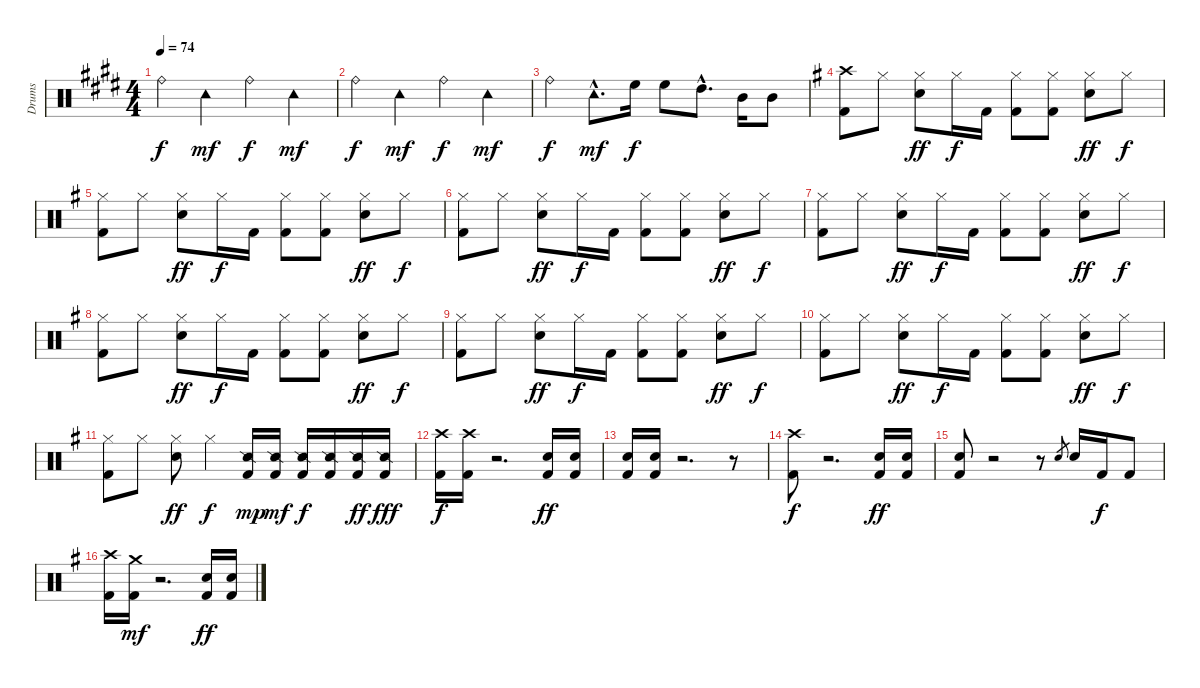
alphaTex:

\track ("Drums" "Drums") {instrument percussion}
\staff {score}
\articulation defaults
\ts (4 4)
\tempo 74
\clef neutral
\ks e "Ride (bell)".4{dy f} "Tambourine (hit)".4{dy mf} "Ride (bell)".4{dy f} "Tambourine (hit)".4{dy mf}
|
"Ride (bell)".4{dy f} "Tambourine (hit)".4{dy mf} "Ride (bell)".4{dy f} "Tambourine (hit)".4{dy mf} |
"Ride (bell)".4{dy f} "Tambourine (hit)"{hac}.8{d dy mf} "High Floor Tom (hit)".16{dy f} "High Floor Tom (hit)".8 "High Tom (hit)"{hac}.8{d} "Mid Tom (hit)".16 "Mid Tom (hit)".8 |
\ks g
("Kick (hit) 2" "Crash high (hit)").8 "Hi-Hat (closed)".8 ("Electric Snare (hit)" "Hi-Hat (closed)").8{dy ff} "Hi-Hat (closed)".16{dy f} "Kick (hit) 2".16 ("Kick (hit) 2" "Hi-Hat (closed)").8 ("Kick (hit) 2" "Hi-Hat (closed)").8 ("Electric Snare (hit)" "Hi-Hat (closed)").8{dy ff} "Hi-Hat (closed)".8{dy f} |
("Kick (hit) 2" "Hi-Hat (closed)").8 "Hi-Hat (closed)".8 ("Electric Snare (hit)" "Hi-Hat (closed)").8{dy ff} "Hi-Hat (closed)".16{dy f} "Kick (hit) 2".16 ("Kick (hit) 2" "Hi-Hat (closed)").8 ("Kick (hit) 2" "Hi-Hat (closed)").8 ("Electric Snare (hit)" "Hi-Hat (closed)").8{dy ff} "Hi-Hat (closed)".8{dy f} |
("Kick (hit) 2" "Hi-Hat (closed)").8 "Hi-Hat (closed)".8 ("Electric Snare (hit)" "Hi-Hat (closed)").8{dy ff} "Hi-Hat (closed)".16{dy f} "Kick (hit) 2".16 ("Kick (hit) 2" "Hi-Hat (closed)").8 ("Kick (hit) 2" "Hi-Hat (closed)").8 ("Electric Snare (hit)" "Hi-Hat (closed)").8{dy ff} "Hi-Hat (closed)".8{dy f} |
("Kick (hit) 2" "Hi-Hat (closed)").8 "Hi-Hat (closed)".8 ("Electric Snare (hit)" "Hi-Hat (closed)").8{dy ff} "Hi-Hat (closed)".16{dy f} "Kick (hit) 2".16 ("Kick (hit) 2" "Hi-Hat (closed)").8 ("Kick (hit) 2" "Hi-Hat (closed)").8 ("Electric Snare (hit)" "Hi-Hat (closed)").8{dy ff} "Hi-Hat (closed)".8{dy f} |
("Kick (hit) 2" "Hi-Hat (closed)").8 "Hi-Hat (closed)".8 ("Electric Snare (hit)" "Hi-Hat (closed)").8{dy ff} "Hi-Hat (closed)".16{dy f} "Kick (hit) 2".16 ("Kick (hit) 2" "Hi-Hat (closed)").8 ("Kick (hit) 2" "Hi-Hat (closed)").8 ("Electric Snare (hit)" "Hi-Hat (closed)").8{dy ff} "Hi-Hat (closed)".8{dy f} |
("Kick (hit) 2" "Hi-Hat (closed)").8 "Hi-Hat (closed)".8 ("Electric Snare (hit)" "Hi-Hat (closed)").8{dy ff} "Hi-Hat (closed)".16{dy f} "Kick (hit) 2".16 ("Kick (hit) 2" "Hi-Hat (closed)").8 ("Kick (hit) 2" "Hi-Hat (closed)").8 ("Electric Snare (hit)" "Hi-Hat (closed)").8{dy ff} "Hi-Hat (closed)".8{dy f} |
("Kick (hit) 2" "Hi-Hat (closed)").8 "Hi-Hat (closed)".8 ("Electric Snare (hit)" "Hi-Hat (closed)").8{dy ff} "Hi-Hat (closed)".16{dy f} "Kick (hit) 2".16 ("Kick (hit) 2" "Hi-Hat (closed)").8 ("Kick (hit) 2" "Hi-Hat (closed)").8 ("Electric Snare (hit)" "Hi-Hat (closed)").8{dy ff} "Hi-Hat (closed)".8{dy f} |
("Kick (hit) 2" "Hi-Hat (closed)").8 "Hi-Hat (closed)".8 ("Electric Snare (hit)" "Hi-Hat (closed)").8{dy ff} "Hi-Hat (closed)".4{dy f} ("Kick (hit) 2" "Snare (side stick) 2").16{dy mp} ("Kick (hit) 2" "Snare (side stick) 2").16{dy mf} ("Kick (hit) 2" "Snare (side stick) 2").16{dy f} ("Kick (hit) 2" "Snare (side stick) 2").16 ("Kick (hit) 2" "Snare (side stick) 2").16{dy ff} ("Kick (hit) 2" "Snare (side stick) 2").16{dy fff} |
("Kick (hit) 2" "Crash high (hit)").16{dy f} ("Kick (hit) 2" "Crash high (hit)").16 r.2{d} ("Kick (hit) 2" "Electric Snare (hit)").16{dy ff volume 12} ("Kick (hit) 2" "Electric Snare (hit)").16 |
("Kick (hit) 2" "Electric Snare (hit)").16 ("Kick (hit) 2" "Electric Snare (hit)").16 r.2{d} r.8 |
("Kick (hit) 2" "Crash high (hit)").8{dy f} r.2{d} ("Kick (hit) 2" "Electric Snare (hit)").16{dy ff volume 12} ("Kick (hit) 2" "Electric Snare (hit)").16 |
("Kick (hit) 2" "Electric Snare (hit)").8 r.2 r.8 "Electric Snare (hit)".8{gr} "Electric Snare (hit)".16 "Kick (hit) 2".16{dy f} "Kick (hit) 2".8 |
("Kick (hit) 2" "Crash high (hit)").16 ("Kick (hit) 2" "Crash medium (hit)").16{dy mf} r.2{d} ("Kick (hit) 2" "Electric Snare (hit)").16{dy ff volume 12} ("Kick (hit) 2" "Electric Snare (hit)").16
